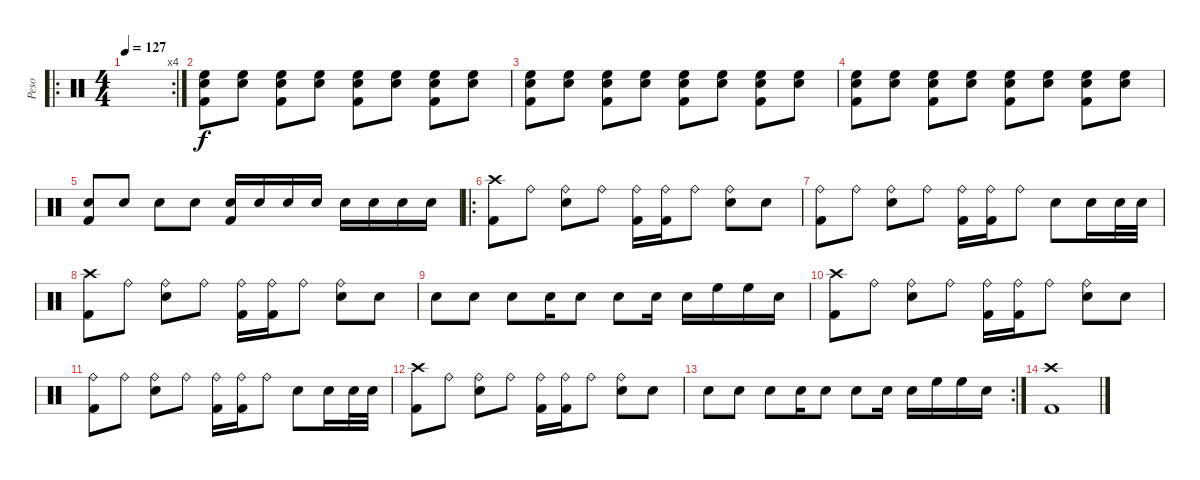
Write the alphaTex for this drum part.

\track ("Peso" "Peso") {instrument percussion}
\staff {score}
\articulation defaults
\ro
\rc 4
\ts (4 4)
\tempo 127
\clef neutral
\ks c
|
("High Floor Tom (hit)" "Snare (hit) 2" "Kick (hit) 2").8{volume 6} ("High Floor Tom (hit)" "Snare (hit) 2").8 ("High Floor Tom (hit)" "Snare (hit) 2" "Kick (hit) 2").8 ("High Floor Tom (hit)" "Snare (hit) 2").8 ("High Floor Tom (hit)" "Snare (hit) 2" "Kick (hit) 2").8{volume 8} ("High Floor Tom (hit)" "Snare (hit) 2").8 ("High Floor Tom (hit)" "Snare (hit) 2" "Kick (hit) 2").8 ("High Floor Tom (hit)" "Snare (hit) 2").8 |
("High Floor Tom (hit)" "Snare (hit) 2" "Kick (hit) 2").8{volume 10} ("High Floor Tom (hit)" "Snare (hit) 2").8 ("High Floor Tom (hit)" "Snare (hit) 2" "Kick (hit) 2").8 ("High Floor Tom (hit)" "Snare (hit) 2").8 ("High Floor Tom (hit)" "Snare (hit) 2" "Kick (hit) 2").8{volume 12} ("High Floor Tom (hit)" "Snare (hit) 2").8 ("High Floor Tom (hit)" "Snare (hit) 2" "Kick (hit) 2").8 ("High Floor Tom (hit)" "Snare (hit) 2").8 |
("High Floor Tom (hit)" "Snare (hit) 2" "Kick (hit) 2").8{volume 14} ("High Floor Tom (hit)" "Snare (hit) 2").8 ("High Floor Tom (hit)" "Snare (hit) 2" "Kick (hit) 2").8 ("High Floor Tom (hit)" "Snare (hit) 2").8 ("High Floor Tom (hit)" "Snare (hit) 2" "Kick (hit) 2").8{volume 16} ("High Floor Tom (hit)" "Snare (hit) 2").8 ("High Floor Tom (hit)" "Snare (hit) 2" "Kick (hit) 2").8 ("High Floor Tom (hit)" "Snare (hit) 2").8 |
("Snare (hit) 2" "Kick (hit) 2").8 "Snare (hit) 2".8 "Snare (hit) 2".8 "Snare (hit) 2".8 ("Snare (hit) 2" "Kick (hit) 2").16 "Snare (hit) 2".16 "Snare (hit) 2".16 "Snare (hit) 2".16 "Snare (hit) 2".16 "Snare (hit) 2".16 "Snare (hit) 2".16 "Snare (hit) 2".16 |
\ro
("Crash high (hit)" "Kick (hit) 2").8 "Ride (bell)"{x}.8 ("Ride (bell)" "Snare (hit) 2").8 "Ride (bell)"{x}.8 ("Ride (bell)" "Kick (hit) 2").16 ("Ride (bell)"{x} "Kick (hit) 2").16 "Ride (bell)"{x}.8 ("Ride (bell)" "Snare (hit) 2").8 "Snare (hit)"{x}.8 |
("Ride (bell)" "Kick (hit) 2").8 "Ride (bell)"{x}.8 ("Ride (bell)" "Snare (hit) 2").8 "Ride (bell)"{x}.8 ("Ride (bell)" "Kick (hit) 2").16 ("Ride (bell)"{x} "Kick (hit) 2").16 "Ride (bell)"{x}.8 "Snare (hit) 2".8 "Snare (hit) 2".16 "Snare (hit) 2".32 "Snare (hit) 2".32 |
("Crash high (hit)" "Kick (hit) 2").8 "Ride (bell)"{x}.8 ("Ride (bell)" "Snare (hit) 2").8 "Ride (bell)"{x}.8 ("Ride (bell)" "Kick (hit) 2").16 ("Ride (bell)"{x} "Kick (hit) 2").16 "Ride (bell)"{x}.8 ("Ride (bell)" "Snare (hit) 2").8 "Snare (hit)"{x}.8 |
"Snare (hit) 2".8 "Snare (hit) 2".8 "Snare (hit)"{x}.8 "Snare (hit) 2".16 "Snare (hit) 2".8 "Snare (hit) 2".8 "Snare (hit) 2".16 "Snare (hit) 2".16 "High Floor Tom (hit)".16 "High Floor Tom (hit)".16 "Snare (hit) 2".16 |
("Crash high (hit)" "Kick (hit) 2").8 "Ride (bell)"{x}.8 ("Ride (bell)" "Snare (hit) 2").8 "Ride (bell)"{x}.8 ("Ride (bell)" "Kick (hit) 2").16 ("Ride (bell)"{x} "Kick (hit) 2").16 "Ride (bell)"{x}.8 ("Ride (bell)" "Snare (hit) 2").8 "Snare (hit)"{x}.8 |
("Ride (bell)" "Kick (hit) 2").8 "Ride (bell)"{x}.8 ("Ride (bell)" "Snare (hit) 2").8 "Ride (bell)"{x}.8 ("Ride (bell)" "Kick (hit) 2").16 ("Ride (bell)"{x} "Kick (hit) 2").16 "Ride (bell)"{x}.8 "Snare (hit) 2".8 "Snare (hit) 2".16 "Snare (hit) 2".32 "Snare (hit) 2".32 |
("Crash high (hit)" "Kick (hit) 2").8 "Ride (bell)"{x}.8 ("Ride (bell)" "Snare (hit) 2").8 "Ride (bell)"{x}.8 ("Ride (bell)" "Kick (hit) 2").16 ("Ride (bell)"{x} "Kick (hit) 2").16 "Ride (bell)"{x}.8 ("Ride (bell)" "Snare (hit) 2").8 "Snare (hit)"{x}.8 |
\rc 2 "Snare (hit) 2".8 "Snare (hit) 2".8 "Snare (hit)"{x}.8 "Snare (hit) 2".16 "Snare (hit) 2".8 "Snare (hit) 2".8 "Snare (hit) 2".16 "Snare (hit) 2".16 "High Floor Tom (hit)".16 "High Floor Tom (hit)".16 "Snare (hit) 2".16
|
("Crash high (hit)" "Kick (hit) 2").1
